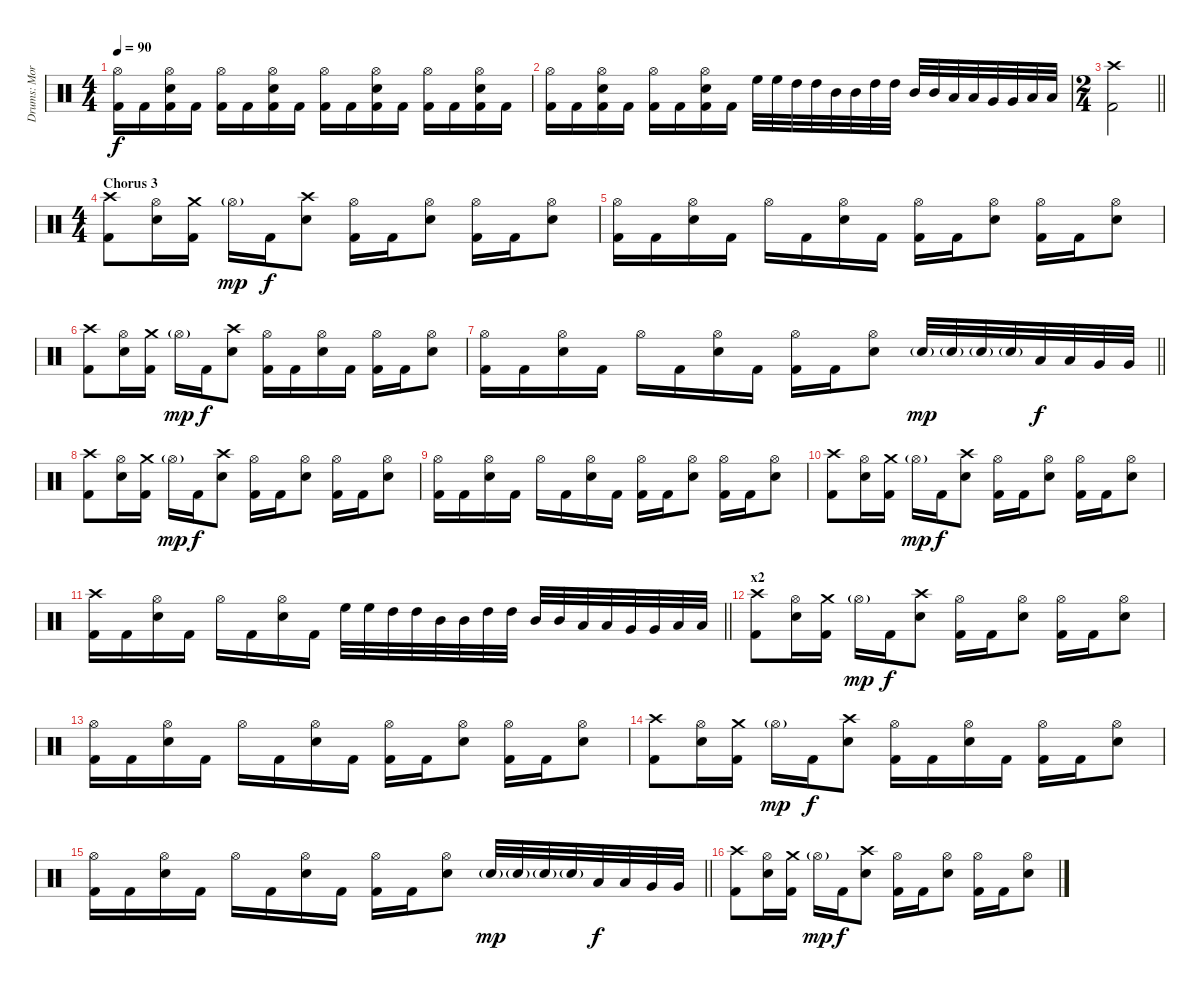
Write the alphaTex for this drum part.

\track ("Drums: Morten Færøvig" "Drums: Mor") {instrument percussion}
\staff {score}
\articulation defaults
\ts (4 4)
\tempo 90
\clef neutral
\ks aminor
("Hi-Hat (open)" "Kick (hit) 2").16{dy f} "Kick (hit) 2".16 ("Hi-Hat (open)" "Electric Snare (hit)" "Kick (hit) 2").16 "Kick (hit) 2".16 ("Hi-Hat (open)" "Kick (hit) 2").16 "Kick (hit) 2".16 ("Hi-Hat (open)" "Electric Snare (hit)" "Kick (hit) 2").16 "Kick (hit) 2".16 ("Hi-Hat (open)" "Kick (hit) 2").16 "Kick (hit) 2".16 ("Hi-Hat (open)" "Electric Snare (hit)" "Kick (hit) 2").16 "Kick (hit) 2".16 ("Hi-Hat (open)" "Kick (hit) 2").16 "Kick (hit) 2".16 ("Hi-Hat (open)" "Electric Snare (hit)" "Kick (hit) 2").16 "Kick (hit) 2".16 |
("Hi-Hat (open)" "Kick (hit) 2").16 "Kick (hit) 2".16 ("Hi-Hat (open)" "Electric Snare (hit)" "Kick (hit) 2").16 "Kick (hit) 2".16 ("Hi-Hat (open)" "Kick (hit) 2").16 "Kick (hit) 2".16 ("Hi-Hat (open)" "Electric Snare (hit)" "Kick (hit) 2").16 "Kick (hit) 2".16 "High Floor Tom (hit)".32 "High Floor Tom (hit)".32 "High Tom (hit)".32 "High Tom (hit)".32 "Mid Tom (hit)".32 "Mid Tom (hit)".32 "High Tom (hit)".32 "High Tom (hit)".32 "Mid Tom (hit)".32 "Mid Tom (hit)".32 "Low Tom (hit)".32 "Low Tom (hit)".32 "Very Low Tom (hit)".32 "Very Low Tom (hit)".32 "Low Tom (hit)".32 "Low Tom (hit)".32 |
\ts (2 4)
\barLineRight lightlight
("Crash high (hit)" "Kick (hit) 2").2 |
\ts (4 4)
\section ("" "Chorus 3")
("Crash high (hit)" "Kick (hit) 2").8 ("Hi-Hat (open)" "Electric Snare (hit)").16 ("Crash medium (hit)" "Kick (hit) 2").16 "Hi-Hat (open)"{g}.16{dy mp} "Kick (hit) 2".16{dy f} ("Crash high (hit)" "Electric Snare (hit)").8 ("Hi-Hat (open)" "Kick (hit) 2").16 "Kick (hit) 2".16 ("Hi-Hat (open)" "Electric Snare (hit)").8 ("Hi-Hat (open)" "Kick (hit) 2").16 "Kick (hit) 2".16 ("Hi-Hat (open)" "Electric Snare (hit)").8 |
("Hi-Hat (open)" "Kick (hit) 2").16 "Kick (hit) 2".16 ("Hi-Hat (open)" "Electric Snare (hit)").16 "Kick (hit) 2".16 "Hi-Hat (open)".16 "Kick (hit) 2".16 ("Hi-Hat (open)" "Electric Snare (hit)").16 "Kick (hit) 2".16 ("Hi-Hat (open)" "Kick (hit) 2").16 "Kick (hit) 2".16 ("Hi-Hat (open)" "Electric Snare (hit)").8 ("Hi-Hat (open)" "Kick (hit) 2").16 "Kick (hit) 2".16 ("Hi-Hat (open)" "Electric Snare (hit)").8 |
("Crash high (hit)" "Kick (hit) 2").8 ("Hi-Hat (open)" "Electric Snare (hit)").16 ("Crash medium (hit)" "Kick (hit) 2").16 "Hi-Hat (open)"{g}.16{dy mp} "Kick (hit) 2".16{dy f} ("Crash high (hit)" "Electric Snare (hit)").8 ("Hi-Hat (open)" "Kick (hit) 2").16 "Kick (hit) 2".16 ("Hi-Hat (open)" "Electric Snare (hit)").16 "Kick (hit) 2".16 ("Hi-Hat (open)" "Kick (hit) 2").16 "Kick (hit) 2".16 ("Hi-Hat (open)" "Electric Snare (hit)").8 |
\barLineRight lightlight
("Hi-Hat (open)" "Kick (hit) 2").16 "Kick (hit) 2".16 ("Hi-Hat (open)" "Electric Snare (hit)").16 "Kick (hit) 2".16 "Hi-Hat (open)".16 "Kick (hit) 2".16 ("Hi-Hat (open)" "Electric Snare (hit)").16 "Kick (hit) 2".16 ("Hi-Hat (open)" "Kick (hit) 2").16 "Kick (hit) 2".16 ("Hi-Hat (open)" "Electric Snare (hit)").8 "Electric Snare (hit)"{g}.32{dy mp} "Electric Snare (hit)"{g}.32 "Electric Snare (hit)"{g}.32 "Electric Snare (hit)"{g}.32 "Low Tom (hit)".32{dy f} "Low Tom (hit)".32 "Very Low Tom (hit)".32 "Very Low Tom (hit)".32 |
("Crash high (hit)" "Kick (hit) 2").8 ("Hi-Hat (open)" "Electric Snare (hit)").16 ("Crash medium (hit)" "Kick (hit) 2").16 "Hi-Hat (open)"{g}.16{dy mp} "Kick (hit) 2".16{dy f} ("Crash high (hit)" "Electric Snare (hit)").8 ("Hi-Hat (open)" "Kick (hit) 2").16 "Kick (hit) 2".16 ("Hi-Hat (open)" "Electric Snare (hit)").8 ("Hi-Hat (open)" "Kick (hit) 2").16 "Kick (hit) 2".16 ("Hi-Hat (open)" "Electric Snare (hit)").8 |
("Hi-Hat (open)" "Kick (hit) 2").16 "Kick (hit) 2".16 ("Hi-Hat (open)" "Electric Snare (hit)").16 "Kick (hit) 2".16 "Hi-Hat (open)".16 "Kick (hit) 2".16 ("Hi-Hat (open)" "Electric Snare (hit)").16 "Kick (hit) 2".16 ("Hi-Hat (open)" "Kick (hit) 2").16 "Kick (hit) 2".16 ("Hi-Hat (open)" "Electric Snare (hit)").8 ("Hi-Hat (open)" "Kick (hit) 2").16 "Kick (hit) 2".16 ("Hi-Hat (open)" "Electric Snare (hit)").8 |
("Crash high (hit)" "Kick (hit) 2").8 ("Hi-Hat (open)" "Electric Snare (hit)").16 ("Crash medium (hit)" "Kick (hit) 2").16 "Hi-Hat (open)"{g}.16{dy mp} "Kick (hit) 2".16{dy f} ("Crash high (hit)" "Electric Snare (hit)").8 ("Hi-Hat (open)" "Kick (hit) 2").16 "Kick (hit) 2".16 ("Hi-Hat (open)" "Electric Snare (hit)").8 ("Hi-Hat (open)" "Kick (hit) 2").16 "Kick (hit) 2".16 ("Hi-Hat (open)" "Electric Snare (hit)").8 |
\barLineRight lightlight
("Crash high (hit)" "Kick (hit) 2").16 "Kick (hit) 2".16 ("Hi-Hat (open)" "Electric Snare (hit)").16 "Kick (hit) 2".16 "Hi-Hat (open)".16 "Kick (hit) 2".16 ("Hi-Hat (open)" "Electric Snare (hit)").16 "Kick (hit) 2".16 "High Floor Tom (hit)".32 "High Floor Tom (hit)".32 "High Tom (hit)".32 "High Tom (hit)".32 "Mid Tom (hit)".32 "Mid Tom (hit)".32 "High Tom (hit)".32 "High Tom (hit)".32 "Mid Tom (hit)".32 "Mid Tom (hit)".32 "Low Tom (hit)".32 "Low Tom (hit)".32 "Very Low Tom (hit)".32 "Very Low Tom (hit)".32 "Low Tom (hit)".32 "Low Tom (hit)".32 |
\section ("" "x2")
("Crash high (hit)" "Kick (hit) 2").8 ("Hi-Hat (open)" "Electric Snare (hit)").16 ("Crash medium (hit)" "Kick (hit) 2").16 "Hi-Hat (open)"{g}.16{dy mp} "Kick (hit) 2".16{dy f} ("Crash high (hit)" "Electric Snare (hit)").8 ("Hi-Hat (open)" "Kick (hit) 2").16 "Kick (hit) 2".16 ("Hi-Hat (open)" "Electric Snare (hit)").8 ("Hi-Hat (open)" "Kick (hit) 2").16 "Kick (hit) 2".16 ("Hi-Hat (open)" "Electric Snare (hit)").8 |
("Hi-Hat (open)" "Kick (hit) 2").16 "Kick (hit) 2".16 ("Hi-Hat (open)" "Electric Snare (hit)").16 "Kick (hit) 2".16 "Hi-Hat (open)".16 "Kick (hit) 2".16 ("Hi-Hat (open)" "Electric Snare (hit)").16 "Kick (hit) 2".16 ("Hi-Hat (open)" "Kick (hit) 2").16 "Kick (hit) 2".16 ("Hi-Hat (open)" "Electric Snare (hit)").8 ("Hi-Hat (open)" "Kick (hit) 2").16 "Kick (hit) 2".16 ("Hi-Hat (open)" "Electric Snare (hit)").8 |
("Crash high (hit)" "Kick (hit) 2").8 ("Hi-Hat (open)" "Electric Snare (hit)").16 ("Crash medium (hit)" "Kick (hit) 2").16 "Hi-Hat (open)"{g}.16{dy mp} "Kick (hit) 2".16{dy f} ("Crash high (hit)" "Electric Snare (hit)").8 ("Hi-Hat (open)" "Kick (hit) 2").16 "Kick (hit) 2".16 ("Hi-Hat (open)" "Electric Snare (hit)").16 "Kick (hit) 2".16 ("Hi-Hat (open)" "Kick (hit) 2").16 "Kick (hit) 2".16 ("Hi-Hat (open)" "Electric Snare (hit)").8 |
\barLineRight lightlight
("Hi-Hat (open)" "Kick (hit) 2").16 "Kick (hit) 2".16 ("Hi-Hat (open)" "Electric Snare (hit)").16 "Kick (hit) 2".16 "Hi-Hat (open)".16 "Kick (hit) 2".16 ("Hi-Hat (open)" "Electric Snare (hit)").16 "Kick (hit) 2".16 ("Hi-Hat (open)" "Kick (hit) 2").16 "Kick (hit) 2".16 ("Hi-Hat (open)" "Electric Snare (hit)").8 "Electric Snare (hit)"{g}.32{dy mp} "Electric Snare (hit)"{g}.32 "Electric Snare (hit)"{g}.32 "Electric Snare (hit)"{g}.32 "Low Tom (hit)".32{dy f} "Low Tom (hit)".32 "Very Low Tom (hit)".32 "Very Low Tom (hit)".32 |
("Crash high (hit)" "Kick (hit) 2").8 ("Hi-Hat (open)" "Electric Snare (hit)").16 ("Crash medium (hit)" "Kick (hit) 2").16 "Hi-Hat (open)"{g}.16{dy mp} "Kick (hit) 2".16{dy f} ("Crash high (hit)" "Electric Snare (hit)").8 ("Hi-Hat (open)" "Kick (hit) 2").16 "Kick (hit) 2".16 ("Hi-Hat (open)" "Electric Snare (hit)").8 ("Hi-Hat (open)" "Kick (hit) 2").16 "Kick (hit) 2".16 ("Hi-Hat (open)" "Electric Snare (hit)").8
